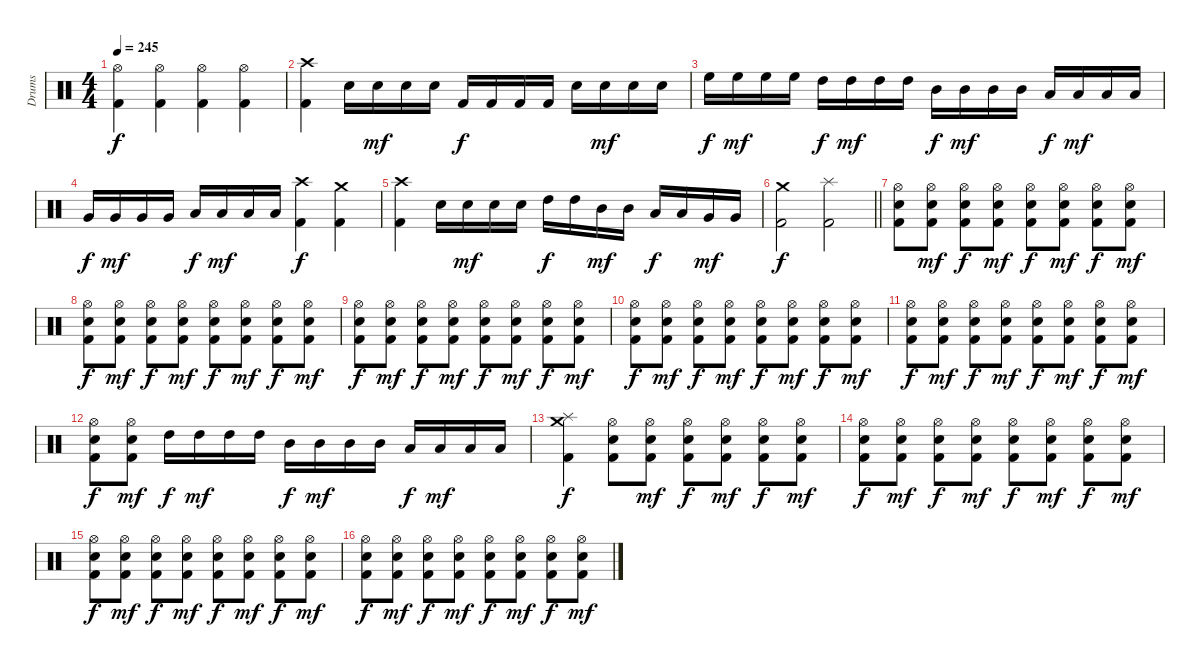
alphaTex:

\track ("Drums" "Drums") {instrument percussion}
\staff {score}
\articulation defaults
\ts (4 4)
\tempo 245
\clef neutral
\ks c
("Hi-Hat (open)" "Kick (hit) 2").4{dy f} ("Hi-Hat (open)" "Kick (hit) 2").4 ("Hi-Hat (open)" "Kick (hit) 2").4 ("Hi-Hat (open)" "Kick (hit) 2").4 |
("Crash high (hit)" "Kick (hit) 2").4 "Electric Snare (hit)".16 "Electric Snare (hit)".16{dy mf} "Electric Snare (hit)".16 "Electric Snare (hit)".16 "Kick (hit) 2".16{dy f} "Kick (hit) 2".16 "Kick (hit) 2".16 "Kick (hit) 2".16 "Electric Snare (hit)".16 "Electric Snare (hit)".16{dy mf} "Electric Snare (hit)".16 "Electric Snare (hit)".16 |
"High Floor Tom (hit)".16{dy f} "High Floor Tom (hit)".16{dy mf} "High Floor Tom (hit)".16 "High Floor Tom (hit)".16 "High Tom (hit)".16{dy f} "High Tom (hit)".16{dy mf} "High Tom (hit)".16 "High Tom (hit)".16 "Mid Tom (hit)".16{dy f} "Mid Tom (hit)".16{dy mf} "Mid Tom (hit)".16 "Mid Tom (hit)".16 "Low Tom (hit)".16{dy f} "Low Tom (hit)".16{dy mf} "Low Tom (hit)".16 "Low Tom (hit)".16 |
"Very Low Tom (hit)".16{dy f} "Very Low Tom (hit)".16{dy mf} "Very Low Tom (hit)".16 "Very Low Tom (hit)".16 "Low Floor Tom (hit)".16{dy f} "Low Floor Tom (hit)".16{dy mf} "Low Floor Tom (hit)".16 "Low Floor Tom (hit)".16 ("Crash high (hit)" "Kick (hit) 2").4{dy f} ("Crash medium (hit)" "Kick (hit) 2").4 |
("Crash high (hit)" "Kick (hit) 2").4 "Electric Snare (hit)".16 "Electric Snare (hit)".16{dy mf} "Electric Snare (hit)".16 "Electric Snare (hit)".16 "High Tom (hit)".16{dy f} "High Tom (hit)".16 "Mid Tom (hit)".16{dy mf} "Mid Tom (hit)".16 "Low Tom (hit)".16{dy f} "Low Tom (hit)".16 "Very Low Tom (hit)".16{dy mf} "Very Low Tom (hit)".16 |
\barLineRight lightlight
("Crash medium (hit)" "Kick (hit) 2").2{dy f} ("Splash (hit)" "Kick (hit) 2").2 |
("Hi-Hat (open)" "Electric Snare (hit)" "Kick (hit) 2").8 ("Hi-Hat (open)" "Electric Snare (hit)" "Kick (hit) 2").8{dy mf} ("Hi-Hat (open)" "Electric Snare (hit)" "Kick (hit) 2").8{dy f} ("Hi-Hat (open)" "Electric Snare (hit)" "Kick (hit) 2").8{dy mf} ("Hi-Hat (open)" "Electric Snare (hit)" "Kick (hit) 2").8{dy f} ("Hi-Hat (open)" "Electric Snare (hit)" "Kick (hit) 2").8{dy mf} ("Hi-Hat (open)" "Electric Snare (hit)" "Kick (hit) 2").8{dy f} ("Hi-Hat (open)" "Electric Snare (hit)" "Kick (hit) 2").8{dy mf} |
("Hi-Hat (open)" "Electric Snare (hit)" "Kick (hit) 2").8{dy f} ("Hi-Hat (open)" "Electric Snare (hit)" "Kick (hit) 2").8{dy mf} ("Hi-Hat (open)" "Electric Snare (hit)" "Kick (hit) 2").8{dy f} ("Hi-Hat (open)" "Electric Snare (hit)" "Kick (hit) 2").8{dy mf} ("Hi-Hat (open)" "Electric Snare (hit)" "Kick (hit) 2").8{dy f} ("Hi-Hat (open)" "Electric Snare (hit)" "Kick (hit) 2").8{dy mf} ("Hi-Hat (open)" "Electric Snare (hit)" "Kick (hit) 2").8{dy f} ("Hi-Hat (open)" "Electric Snare (hit)" "Kick (hit) 2").8{dy mf} |
("Hi-Hat (open)" "Electric Snare (hit)" "Kick (hit) 2").8{dy f} ("Hi-Hat (open)" "Electric Snare (hit)" "Kick (hit) 2").8{dy mf} ("Hi-Hat (open)" "Electric Snare (hit)" "Kick (hit) 2").8{dy f} ("Hi-Hat (open)" "Electric Snare (hit)" "Kick (hit) 2").8{dy mf} ("Hi-Hat (open)" "Electric Snare (hit)" "Kick (hit) 2").8{dy f} ("Hi-Hat (open)" "Electric Snare (hit)" "Kick (hit) 2").8{dy mf} ("Hi-Hat (open)" "Electric Snare (hit)" "Kick (hit) 2").8{dy f} ("Hi-Hat (open)" "Electric Snare (hit)" "Kick (hit) 2").8{dy mf} |
("Hi-Hat (open)" "Electric Snare (hit)" "Kick (hit) 2").8{dy f} ("Hi-Hat (open)" "Electric Snare (hit)" "Kick (hit) 2").8{dy mf} ("Hi-Hat (open)" "Electric Snare (hit)" "Kick (hit) 2").8{dy f} ("Hi-Hat (open)" "Electric Snare (hit)" "Kick (hit) 2").8{dy mf} ("Hi-Hat (open)" "Electric Snare (hit)" "Kick (hit) 2").8{dy f} ("Hi-Hat (open)" "Electric Snare (hit)" "Kick (hit) 2").8{dy mf} ("Hi-Hat (open)" "Electric Snare (hit)" "Kick (hit) 2").8{dy f} ("Hi-Hat (open)" "Electric Snare (hit)" "Kick (hit) 2").8{dy mf} |
("Hi-Hat (open)" "Electric Snare (hit)" "Kick (hit) 2").8{dy f} ("Hi-Hat (open)" "Electric Snare (hit)" "Kick (hit) 2").8{dy mf} ("Hi-Hat (open)" "Electric Snare (hit)" "Kick (hit) 2").8{dy f} ("Hi-Hat (open)" "Electric Snare (hit)" "Kick (hit) 2").8{dy mf} ("Hi-Hat (open)" "Electric Snare (hit)" "Kick (hit) 2").8{dy f} ("Hi-Hat (open)" "Electric Snare (hit)" "Kick (hit) 2").8{dy mf} ("Hi-Hat (open)" "Electric Snare (hit)" "Kick (hit) 2").8{dy f} ("Hi-Hat (open)" "Electric Snare (hit)" "Kick (hit) 2").8{dy mf} |
("Hi-Hat (open)" "Electric Snare (hit)" "Kick (hit) 2").8{dy f} ("Hi-Hat (open)" "Electric Snare (hit)" "Kick (hit) 2").8{dy mf} "High Tom (hit)".16{dy f} "High Tom (hit)".16{dy mf} "High Tom (hit)".16 "High Tom (hit)".16 "Mid Tom (hit)".16{dy f} "Mid Tom (hit)".16{dy mf} "Mid Tom (hit)".16 "Mid Tom (hit)".16 "Low Tom (hit)".16{dy f} "Low Tom (hit)".16{dy mf} "Low Tom (hit)".16 "Low Tom (hit)".16 |
("Crash medium (hit)" "Splash (hit)" "Kick (hit) 2").4{dy f} ("Hi-Hat (open)" "Electric Snare (hit)" "Kick (hit) 2").8 ("Hi-Hat (open)" "Electric Snare (hit)" "Kick (hit) 2").8{dy mf} ("Hi-Hat (open)" "Electric Snare (hit)" "Kick (hit) 2").8{dy f} ("Hi-Hat (open)" "Electric Snare (hit)" "Kick (hit) 2").8{dy mf} ("Hi-Hat (open)" "Electric Snare (hit)" "Kick (hit) 2").8{dy f} ("Hi-Hat (open)" "Electric Snare (hit)" "Kick (hit) 2").8{dy mf} |
("Hi-Hat (open)" "Electric Snare (hit)" "Kick (hit) 2").8{dy f} ("Hi-Hat (open)" "Electric Snare (hit)" "Kick (hit) 2").8{dy mf} ("Hi-Hat (open)" "Electric Snare (hit)" "Kick (hit) 2").8{dy f} ("Hi-Hat (open)" "Electric Snare (hit)" "Kick (hit) 2").8{dy mf} ("Hi-Hat (open)" "Electric Snare (hit)" "Kick (hit) 2").8{dy f} ("Hi-Hat (open)" "Electric Snare (hit)" "Kick (hit) 2").8{dy mf} ("Hi-Hat (open)" "Electric Snare (hit)" "Kick (hit) 2").8{dy f} ("Hi-Hat (open)" "Electric Snare (hit)" "Kick (hit) 2").8{dy mf} |
("Hi-Hat (open)" "Electric Snare (hit)" "Kick (hit) 2").8{dy f} ("Hi-Hat (open)" "Electric Snare (hit)" "Kick (hit) 2").8{dy mf} ("Hi-Hat (open)" "Electric Snare (hit)" "Kick (hit) 2").8{dy f} ("Hi-Hat (open)" "Electric Snare (hit)" "Kick (hit) 2").8{dy mf} ("Hi-Hat (open)" "Electric Snare (hit)" "Kick (hit) 2").8{dy f} ("Hi-Hat (open)" "Electric Snare (hit)" "Kick (hit) 2").8{dy mf} ("Hi-Hat (open)" "Electric Snare (hit)" "Kick (hit) 2").8{dy f} ("Hi-Hat (open)" "Electric Snare (hit)" "Kick (hit) 2").8{dy mf} |
("Hi-Hat (open)" "Electric Snare (hit)" "Kick (hit) 2").8{dy f} ("Hi-Hat (open)" "Electric Snare (hit)" "Kick (hit) 2").8{dy mf} ("Hi-Hat (open)" "Electric Snare (hit)" "Kick (hit) 2").8{dy f} ("Hi-Hat (open)" "Electric Snare (hit)" "Kick (hit) 2").8{dy mf} ("Hi-Hat (open)" "Electric Snare (hit)" "Kick (hit) 2").8{dy f} ("Hi-Hat (open)" "Electric Snare (hit)" "Kick (hit) 2").8{dy mf} ("Hi-Hat (open)" "Electric Snare (hit)" "Kick (hit) 2").8{dy f} ("Hi-Hat (open)" "Electric Snare (hit)" "Kick (hit) 2").8{dy mf}
